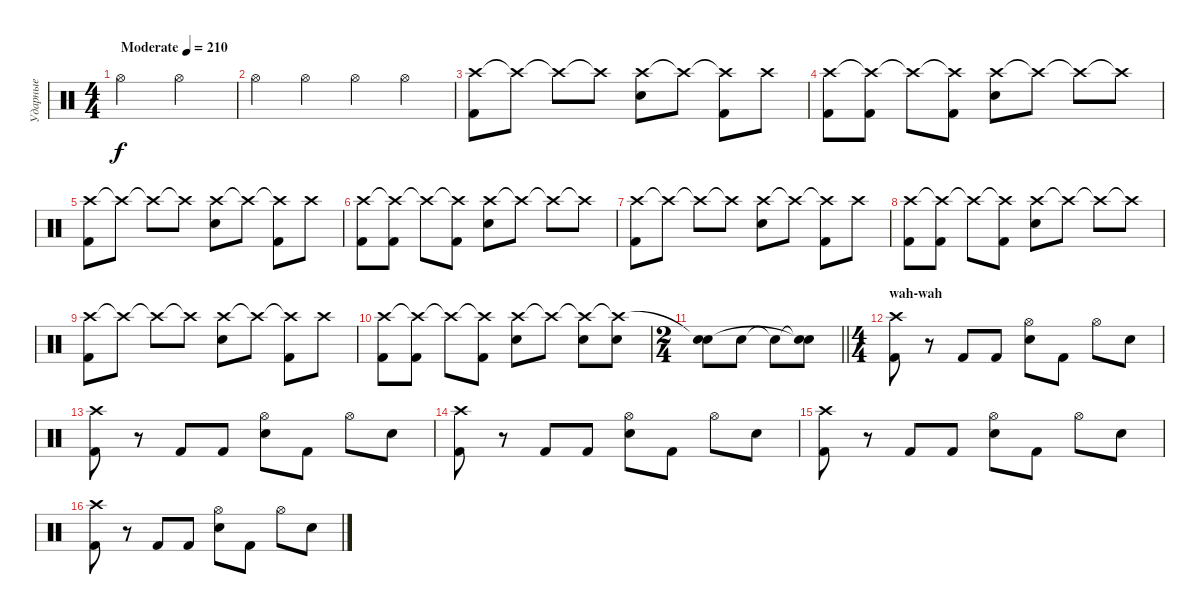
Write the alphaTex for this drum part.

\track ("Ударные" "Ударные") {instrument percussion}
\staff {score}
\articulation defaults
\ts (4 4)
\tempo (210 "Moderate")
\clef neutral
\ks c "Hi-Hat (open)".2{dy f} "Hi-Hat (open)".2
|
"Hi-Hat (open)".4 "Hi-Hat (open)".4 "Hi-Hat (open)".4 "Hi-Hat (open)".4 |
("Crash high (hit)" "Kick (hit) 2").8 "Crash high (hit)"{t}.8 "Crash high (hit)"{t}.8 "Crash high (hit)"{t}.8 ("Crash high (hit)" "Snare (hit) 2").8 "Crash high (hit)"{t}.8 ("Crash high (hit)"{t} "Kick (hit) 2").8 "Crash high (hit)".8 |
("Crash high (hit)" "Kick (hit) 2").8 ("Crash high (hit)"{t} "Kick (hit) 2").8 "Crash high (hit)"{t}.8 ("Crash high (hit)"{t} "Kick (hit) 2").8 ("Crash high (hit)" "Snare (hit) 2").8 "Crash high (hit)"{t}.8 "Crash high (hit)"{t}.8 "Crash high (hit)"{t}.8 |
("Crash high (hit)" "Kick (hit) 2").8 "Crash high (hit)"{t}.8 "Crash high (hit)"{t}.8 "Crash high (hit)"{t}.8 ("Crash high (hit)" "Snare (hit) 2").8 "Crash high (hit)"{t}.8 ("Crash high (hit)"{t} "Kick (hit) 2").8 "Crash high (hit)".8 |
("Crash high (hit)" "Kick (hit) 2").8 ("Crash high (hit)"{t} "Kick (hit) 2").8 "Crash high (hit)"{t}.8 ("Crash high (hit)"{t} "Kick (hit) 2").8 ("Crash high (hit)" "Snare (hit) 2").8 "Crash high (hit)"{t}.8 "Crash high (hit)"{t}.8 "Crash high (hit)"{t}.8 |
("Crash high (hit)" "Kick (hit) 2").8 "Crash high (hit)"{t}.8 "Crash high (hit)"{t}.8 "Crash high (hit)"{t}.8 ("Crash high (hit)" "Snare (hit) 2").8 "Crash high (hit)"{t}.8 ("Crash high (hit)"{t} "Kick (hit) 2").8 "Crash high (hit)".8 |
("Crash high (hit)" "Kick (hit) 2").8 ("Crash high (hit)"{t} "Kick (hit) 2").8 "Crash high (hit)"{t}.8 ("Crash high (hit)"{t} "Kick (hit) 2").8 ("Crash high (hit)" "Snare (hit) 2").8 "Crash high (hit)"{t}.8 "Crash high (hit)"{t}.8 "Crash high (hit)"{t}.8 |
("Crash high (hit)" "Kick (hit) 2").8 "Crash high (hit)"{t}.8 "Crash high (hit)"{t}.8 "Crash high (hit)"{t}.8 ("Crash high (hit)" "Snare (hit) 2").8 "Crash high (hit)"{t}.8 ("Crash high (hit)"{t} "Kick (hit) 2").8 "Crash high (hit)".8 |
("Crash high (hit)" "Kick (hit) 2").8 ("Crash high (hit)"{t} "Kick (hit) 2").8 "Crash high (hit)"{t}.8 ("Crash high (hit)"{t} "Kick (hit) 2").8 ("Crash high (hit)" "Snare (hit) 2").8 "Crash high (hit)"{t}.8 ("Crash high (hit)"{t} "Snare (hit) 2").8 ("Crash high (hit)"{t} "Snare (hit) 2").8 |
\ts (2 4)
\barLineRight lightlight
("Snare (hit)"{t} "Snare (hit) 2").8 "Snare (hit) 2".8 "Snare (hit)"{t}.8 ("Snare (hit)"{t} "Snare (hit)"{t}).8 |
\ts (4 4)
\section ("" "wah-wah")
("Crash high (hit)" "Kick (hit) 2").8 r.8 "Kick (hit) 2".8 "Kick (hit) 2".8 ("Hi-Hat (open)" "Snare (hit) 2").8 "Kick (hit) 2".8 "Hi-Hat (open)".8 "Snare (hit) 2".8 |
("Crash high (hit)" "Kick (hit) 2").8 r.8 "Kick (hit) 2".8 "Kick (hit) 2".8 ("Hi-Hat (open)" "Snare (hit) 2").8 "Kick (hit) 2".8 "Hi-Hat (open)".8 "Snare (hit) 2".8 |
("Crash high (hit)" "Kick (hit) 2").8 r.8 "Kick (hit) 2".8 "Kick (hit) 2".8 ("Hi-Hat (open)" "Snare (hit) 2").8 "Kick (hit) 2".8 "Hi-Hat (open)".8 "Snare (hit) 2".8 |
("Crash high (hit)" "Kick (hit) 2").8 r.8 "Kick (hit) 2".8 "Kick (hit) 2".8 ("Hi-Hat (open)" "Snare (hit) 2").8 "Kick (hit) 2".8 "Hi-Hat (open)".8 "Snare (hit) 2".8 |
("Crash high (hit)" "Kick (hit) 2").8 r.8 "Kick (hit) 2".8 "Kick (hit) 2".8 ("Hi-Hat (open)" "Snare (hit) 2").8 "Kick (hit) 2".8 "Hi-Hat (open)".8 "Snare (hit) 2".8
